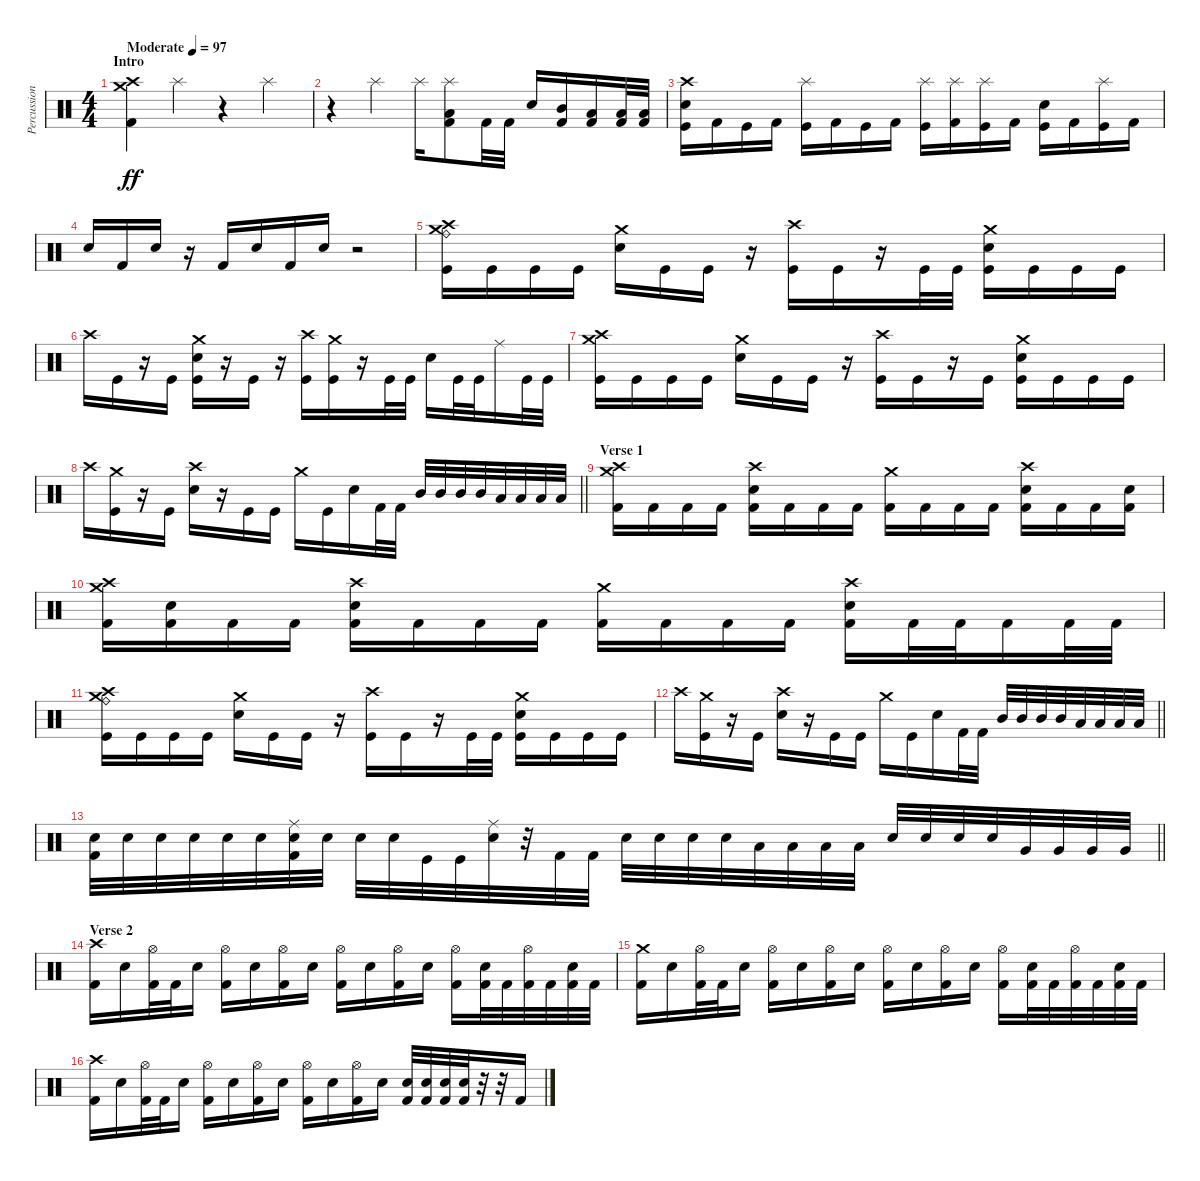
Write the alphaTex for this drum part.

\track ("Percussion" "Percussion") {instrument percussion}
\staff {score}
\articulation defaults
\ts (4 4)
\section ("" "Intro")
\tempo (97 "Moderate")
\clef neutral
\ks c
("Crash high (hit)" "Crash medium (hit)" "Kick (hit) 2").4{dy ff} "Splash (hit)".4 r.4 "Splash (hit)".4 |
r.4 "Splash (hit)".4 "Splash (hit)".16 ("Splash (hit)" "Low Floor Tom (hit)" "Kick (hit) 2").8 "Kick (hit) 2".32 "Kick (hit) 2".32 "Electric Snare (hit)".16 ("Mid Tom (hit)" "Kick (hit) 2").16 ("Low Tom (hit)" "Kick (hit) 2").16 ("Low Tom (hit)" "Kick (hit) 2").32 ("Low Tom (hit)" "Kick (hit) 2").32 |
("Crash high (hit)" "Electric Snare (hit)" "Kick (hit)").16 "Kick (hit) 2".16 "Kick (hit)".16 "Kick (hit) 2".16 ("Splash (hit)" "Kick (hit)").16 "Kick (hit) 2".16 "Kick (hit)".16 "Kick (hit) 2".16 ("Splash (hit)" "Kick (hit)").16 ("Splash (hit)" "Kick (hit) 2").16 ("Splash (hit)" "Kick (hit)").16 "Kick (hit) 2".16 ("Electric Snare (hit)" "Kick (hit)").16 "Kick (hit) 2".16 ("Splash (hit)" "Kick (hit)").16 "Kick (hit) 2".16 |
"Electric Snare (hit)".16 "Kick (hit) 2".16 "Electric Snare (hit)".16 r.16 "Kick (hit) 2".16 "Electric Snare (hit)".16 "Kick (hit) 2".16 "Electric Snare (hit)".16 r.2 |
("Crash medium (hit)" "Crash high (hit)" "Ride (bell)" "Kick (hit)").16 "Kick (hit)".16 "Kick (hit)".16 "Kick (hit)".16 ("Crash medium (hit)" "Electric Snare (hit)").16 "Kick (hit)".16 "Kick (hit)".16 r.16 ("Crash high (hit)" "Kick (hit)").16 "Kick (hit)".16 r.16 "Kick (hit)".32 "Kick (hit)".32 ("Crash medium (hit)" "Electric Snare (hit)" "Kick (hit)").16 "Kick (hit)".16 "Kick (hit)".16 "Kick (hit)".16 |
"Crash high (hit)".16 "Kick (hit)".16 r.16 "Kick (hit)".16 ("Crash medium (hit)" "Electric Snare (hit)" "Kick (hit)").16 r.16 "Kick (hit)".16 r.16 ("Crash high (hit)" "Kick (hit)").16 ("Crash medium (hit)" "Kick (hit)").16 r.16 "Kick (hit)".32 "Kick (hit)".32 "Electric Snare (hit)".16 "Kick (hit)".32 "Kick (hit)".32 "Ride (middle)".16 "Kick (hit)".32 "Kick (hit)".32 |
("Crash high (hit)" "Crash medium (hit)" "Kick (hit)").16 "Kick (hit)".16 "Kick (hit)".16 "Kick (hit)".16 ("Crash medium (hit)" "Electric Snare (hit)").16 "Kick (hit)".16 "Kick (hit)".16 r.16 ("Crash high (hit)" "Kick (hit)").16 "Kick (hit)".16 r.16 "Kick (hit)".16 ("Crash medium (hit)" "Electric Snare (hit)" "Kick (hit)").16 "Kick (hit)".16 "Kick (hit)".16 "Kick (hit)".16 |
\barLineRight lightlight "Crash high (hit)".16
("Crash medium (hit)" "Kick (hit)").16 r.16 "Kick (hit)".16 ("Crash high (hit)" "Electric Snare (hit)").16 r.16 "Kick (hit)".16 "Kick (hit)".16 "Crash medium (hit)".16 "Kick (hit)".16 "Electric Snare (hit)".16 "Kick (hit) 2".32 "Kick (hit) 2".32 "Mid Tom (hit)".32 "Mid Tom (hit)".32 "Mid Tom (hit)".32 "Mid Tom (hit)".32 "Low Tom (hit)".32 "Low Tom (hit)".32 "Low Tom (hit)".32 "Low Tom (hit)".32 |
\section ("" "Verse 1")
("Crash high (hit)" "Crash medium (hit)" "Kick (hit) 2").16 "Kick (hit) 2".16 "Kick (hit) 2".16 "Kick (hit) 2".16 ("Crash high (hit)" "Electric Snare (hit)" "Kick (hit) 2").16 "Kick (hit) 2".16 "Kick (hit) 2".16 "Kick (hit) 2".16 ("Crash medium (hit)" "Kick (hit) 2").16 "Kick (hit) 2".16 "Kick (hit) 2".16 "Kick (hit) 2".16 ("Crash high (hit)" "Electric Snare (hit)" "Kick (hit) 2").16 "Kick (hit) 2".16 "Kick (hit) 2".16 ("Electric Snare (hit)" "Kick (hit) 2").16 |
("Crash medium (hit)" "Crash high (hit)" "Kick (hit) 2").16 ("Electric Snare (hit)" "Kick (hit) 2").16 "Kick (hit) 2".16 "Kick (hit) 2".16 ("Crash high (hit)" "Electric Snare (hit)" "Kick (hit) 2").16 "Kick (hit) 2".16 "Kick (hit) 2".16 "Kick (hit) 2".16 ("Crash medium (hit)" "Kick (hit) 2").16 "Kick (hit) 2".16 "Kick (hit) 2".16 "Kick (hit) 2".16 ("Crash high (hit)" "Electric Snare (hit)" "Kick (hit) 2").16 "Kick (hit) 2".32 "Kick (hit) 2".32 "Kick (hit) 2".16 "Kick (hit) 2".32 "Kick (hit) 2".32 |
("Crash medium (hit)" "Crash high (hit)" "Ride (bell)" "Kick (hit)").16 "Kick (hit)".16 "Kick (hit)".16 "Kick (hit)".16 ("Crash medium (hit)" "Electric Snare (hit)").16 "Kick (hit)".16 "Kick (hit)".16 r.16 ("Crash high (hit)" "Kick (hit)").16 "Kick (hit)".16 r.16 "Kick (hit)".32 "Kick (hit)".32 ("Crash medium (hit)" "Electric Snare (hit)" "Kick (hit)").16 "Kick (hit)".16 "Kick (hit)".16 "Kick (hit)".16 |
\barLineRight lightlight "Crash high (hit)".16
("Crash medium (hit)" "Kick (hit)").16 r.16 "Kick (hit)".16 ("Crash high (hit)" "Electric Snare (hit)").16 r.16 "Kick (hit)".16 "Kick (hit)".16 "Crash medium (hit)".16 "Kick (hit)".16 "Electric Snare (hit)".16 "Kick (hit) 2".32 "Kick (hit) 2".32 "Mid Tom (hit)".32 "Mid Tom (hit)".32 "Mid Tom (hit)".32 "Mid Tom (hit)".32 "Low Tom (hit)".32 "Low Tom (hit)".32 "Low Tom (hit)".32 "Low Tom (hit)".32 |
\barLineRight lightlight
("Electric Snare (hit)" "Kick (hit) 2").32 "Electric Snare (hit)".32 "Electric Snare (hit)".32 "Electric Snare (hit)".32 "Electric Snare (hit)".32 "Electric Snare (hit)".32 ("Ride (middle)" "Electric Snare (hit)" "Kick (hit) 2").32 "Electric Snare (hit)".32 "Electric Snare (hit)".32 "Electric Snare (hit)".32 "Kick (hit)".32 "Kick (hit)".32 ("Ride (middle)" "Electric Snare (hit)").32 r.32 "Kick (hit) 2".32 "Kick (hit) 2".32 "Electric Snare (hit)".32 "Electric Snare (hit)".32 "Electric Snare (hit)".32 "Electric Snare (hit)".32 "Low Tom (hit)".32 "Low Tom (hit)".32 "Low Tom (hit)".32 "Low Tom (hit)".32 "Electric Snare (hit)".32 "Electric Snare (hit)".32 "Electric Snare (hit)".32 "Electric Snare (hit)".32 "Very Low Tom (hit)".32 "Very Low Tom (hit)".32 "Very Low Tom (hit)".32 "Very Low Tom (hit)".32 |
\section ("" "Verse 2")
("Crash high (hit)" "Kick (hit) 2").16 "Electric Snare (hit)".16 ("Hi-Hat (open)" "Kick (hit) 2").32 "Kick (hit) 2".32 "Electric Snare (hit)".16 ("Hi-Hat (open)" "Kick (hit) 2").16 "Electric Snare (hit)".16 ("Hi-Hat (open)" "Kick (hit) 2").16 "Electric Snare (hit)".16 ("Hi-Hat (open)" "Kick (hit) 2").16 "Electric Snare (hit)".16 ("Hi-Hat (open)" "Kick (hit) 2").16 "Electric Snare (hit)".16 ("Hi-Hat (open)" "Kick (hit) 2").16 ("Electric Snare (hit)" "Kick (hit) 2").32 "Kick (hit) 2".32 ("Hi-Hat (open)" "Kick (hit) 2").32 "Kick (hit) 2".32 ("Electric Snare (hit)" "Kick (hit) 2").32 "Kick (hit) 2".32 |
("Crash medium (hit)" "Kick (hit) 2").16 "Electric Snare (hit)".16 ("Hi-Hat (open)" "Kick (hit) 2").32 "Kick (hit) 2".32 "Electric Snare (hit)".16 ("Hi-Hat (open)" "Kick (hit) 2").16 "Electric Snare (hit)".16 ("Hi-Hat (open)" "Kick (hit) 2").16 "Electric Snare (hit)".16 ("Hi-Hat (open)" "Kick (hit) 2").16 "Electric Snare (hit)".16 ("Hi-Hat (open)" "Kick (hit) 2").16 "Electric Snare (hit)".16 ("Hi-Hat (open)" "Kick (hit) 2").16 ("Electric Snare (hit)" "Kick (hit) 2").32 "Kick (hit) 2".32 ("Hi-Hat (open)" "Kick (hit) 2").32 "Kick (hit) 2".32 ("Electric Snare (hit)" "Kick (hit) 2").32 "Kick (hit) 2".32 |
("Crash high (hit)" "Kick (hit) 2").16 "Electric Snare (hit)".16 ("Hi-Hat (open)" "Kick (hit) 2").32 "Kick (hit) 2".32 "Electric Snare (hit)".16 ("Hi-Hat (open)" "Kick (hit) 2").16 "Electric Snare (hit)".16 ("Hi-Hat (open)" "Kick (hit) 2").16 "Electric Snare (hit)".16 ("Hi-Hat (open)" "Kick (hit) 2").16 "Electric Snare (hit)".16 ("Hi-Hat (open)" "Kick (hit) 2").16 "Electric Snare (hit)".16 ("Electric Snare (hit)" "Kick (hit) 2").32 ("Electric Snare (hit)" "Kick (hit) 2").32 ("Electric Snare (hit)" "Kick (hit) 2").32 ("Electric Snare (hit)" "Kick (hit) 2").32 r.32 r.32 "Kick (hit) 2".16
